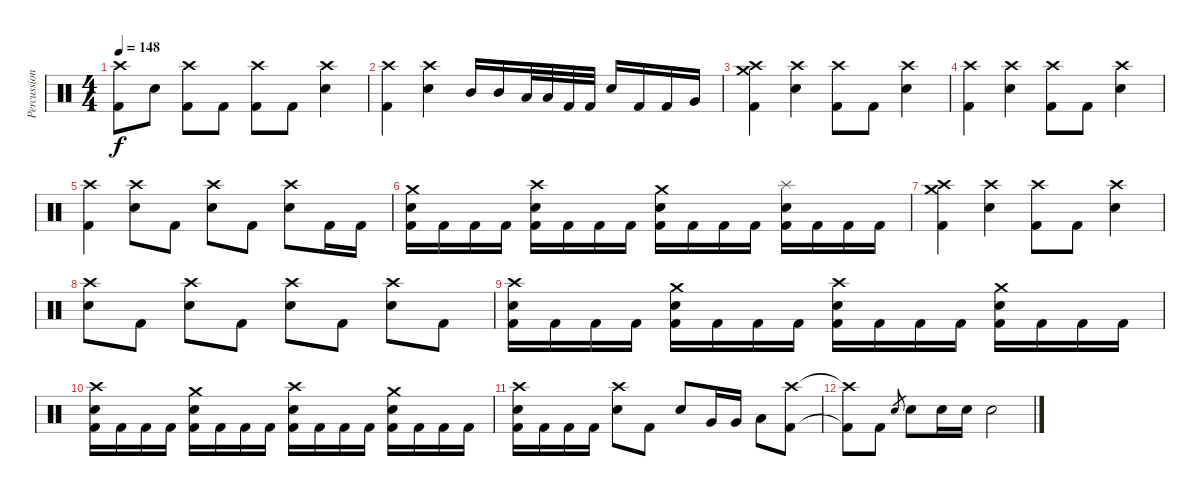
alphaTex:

\track ("Percussion" "Percussion") {instrument percussion}
\staff {score}
\articulation defaults
\ts (4 4)
\tempo 148
\clef neutral
\ks c
("Crash high (hit)" "Kick (hit) 2").8{dy f} "Snare (hit) 2".8 ("Crash high (hit)" "Kick (hit) 2").8 "Kick (hit) 2".8 ("Crash high (hit)" "Kick (hit) 2").8 "Kick (hit) 2".8 ("Crash high (hit)" "Snare (hit) 2").4 |
("Crash high (hit)" "Kick (hit) 2").4 ("Crash high (hit)" "Snare (hit) 2").4 "Mid Tom (hit)".16 "Mid Tom (hit)".16 "Low Tom (hit)".32 "Low Tom (hit)".32 "Kick (hit) 2".32 "Kick (hit) 2".32 "Snare (hit) 2".16 "Kick (hit) 2".16 "Kick (hit) 2".16 "Very Low Tom (hit)".16 |
("Crash high (hit)" "Crash medium (hit)" "Kick (hit) 2").4 ("Crash high (hit)" "Snare (hit) 2").4 ("Crash high (hit)" "Kick (hit) 2").8 "Kick (hit) 2".8 ("Crash high (hit)" "Snare (hit) 2").4 |
("Crash high (hit)" "Kick (hit) 2").4 ("Crash high (hit)" "Snare (hit) 2").4 ("Crash high (hit)" "Kick (hit) 2").8 "Kick (hit) 2".8 ("Crash high (hit)" "Snare (hit) 2").4 |
("Crash high (hit)" "Kick (hit) 2").4 ("Crash high (hit)" "Snare (hit) 2").8 "Kick (hit) 2".8 ("Crash high (hit)" "Snare (hit) 2").8 "Kick (hit) 2".8 ("Crash high (hit)" "Snare (hit) 2").8 "Kick (hit) 2".16 "Kick (hit) 2".16 |
("Crash medium (hit)" "Snare (hit) 2" "Kick (hit) 2").16 "Kick (hit) 2".16 "Kick (hit) 2".16 "Kick (hit) 2".16 ("Crash high (hit)" "Snare (hit) 2" "Kick (hit) 2").16 "Kick (hit) 2".16 "Kick (hit) 2".16 "Kick (hit) 2".16 ("Crash medium (hit)" "Snare (hit) 2" "Kick (hit) 2").16 "Kick (hit) 2".16 "Kick (hit) 2".16 "Kick (hit) 2".16 ("Splash (hit)" "Snare (hit) 2" "Kick (hit) 2").16 "Kick (hit) 2".16 "Kick (hit) 2".16 "Kick (hit) 2".16 |
("Crash high (hit)" "Crash medium (hit)" "Kick (hit) 2").4 ("Crash high (hit)" "Snare (hit) 2").4 ("Crash high (hit)" "Kick (hit) 2").8 "Kick (hit) 2".8 ("Crash high (hit)" "Snare (hit) 2").4 |
("Crash high (hit)" "Snare (hit) 2").8 "Kick (hit) 2".8 ("Crash high (hit)" "Snare (hit) 2").8 "Kick (hit) 2".8 ("Crash high (hit)" "Snare (hit) 2").8 "Kick (hit) 2".8 ("Crash high (hit)" "Snare (hit) 2").8 "Kick (hit) 2".8 |
("Crash high (hit)" "Snare (hit) 2" "Kick (hit) 2").16 "Kick (hit) 2".16 "Kick (hit) 2".16 "Kick (hit) 2".16 ("Crash medium (hit)" "Snare (hit) 2" "Kick (hit) 2").16 "Kick (hit) 2".16 "Kick (hit) 2".16 "Kick (hit) 2".16 ("Crash high (hit)" "Snare (hit) 2" "Kick (hit) 2").16 "Kick (hit) 2".16 "Kick (hit) 2".16 "Kick (hit) 2".16 ("Crash medium (hit)" "Snare (hit) 2" "Kick (hit) 2").16 "Kick (hit) 2".16 "Kick (hit) 2".16 "Kick (hit) 2".16 |
("Crash high (hit)" "Snare (hit) 2" "Kick (hit) 2").16 "Kick (hit) 2".16 "Kick (hit) 2".16 "Kick (hit) 2".16 ("Crash medium (hit)" "Snare (hit) 2" "Kick (hit) 2").16 "Kick (hit) 2".16 "Kick (hit) 2".16 "Kick (hit) 2".16 ("Crash high (hit)" "Snare (hit) 2" "Kick (hit) 2").16 "Kick (hit) 2".16 "Kick (hit) 2".16 "Kick (hit) 2".16 ("Crash medium (hit)" "Snare (hit) 2" "Kick (hit) 2").16 "Kick (hit) 2".16 "Kick (hit) 2".16 "Kick (hit) 2".16 |
("Crash high (hit)" "Snare (hit) 2" "Kick (hit) 2").16 "Kick (hit) 2".16 "Kick (hit) 2".16 "Kick (hit) 2".16 ("Crash high (hit)" "Snare (hit) 2").8 "Kick (hit) 2".8 "Snare (hit) 2".8 "Very Low Tom (hit)".16 "Very Low Tom (hit)".16 "Low Floor Tom (hit)".8 ("Crash high (hit)" "Kick (hit) 2").8 |
("Crash high (hit)"{t} "Kick (hit) 2"{t}).8 "Kick (hit) 2".8 "Snare (hit) 2".8{gr} "Snare (hit) 2".8 "Snare (hit) 2".16 "Snare (hit) 2".16 "Snare (hit) 2".2
